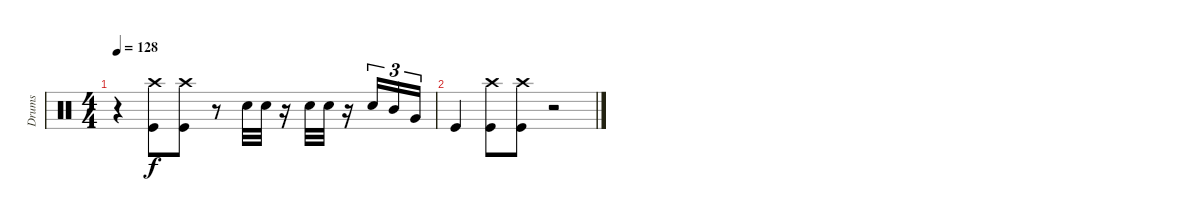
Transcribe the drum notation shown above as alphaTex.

\track ("Drums" "Drums") {instrument percussion}
\staff {score}
\articulation defaults
\ts (4 4)
\tempo 128
\clef neutral
\ks c
r.4{dy f} ("Crash high (hit)" "Kick (hit)").8 ("Crash high (hit)" "Kick (hit)").8 r.8 "Snare (hit) 2".32 "Snare (hit) 2".32 r.16 "Snare (hit) 2".32 "Snare (hit) 2".32 r.16 "Snare (hit) 2".16{tu (3 2)} "Mid Tom (hit)".16{tu (3 2)} "Very Low Tom (hit)".16{tu (3 2)} |
"Kick (hit)".4 ("Crash high (hit)" "Kick (hit)").8 ("Crash high (hit)" "Kick (hit)").8 r.2
